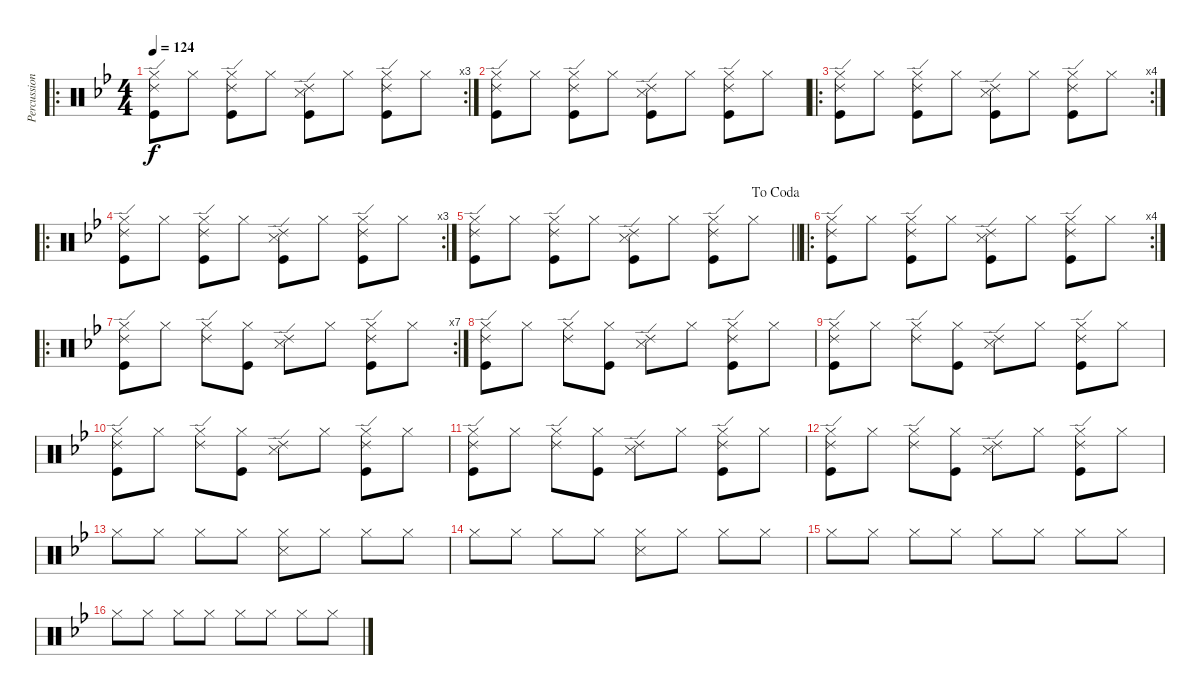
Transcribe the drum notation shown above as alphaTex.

\track ("Percussion" "Percussion") {instrument percussion}
\staff {score}
\articulation defaults
\ro
\rc 3
\ts (4 4)
\tempo 124
\clef neutral
\ks gminor
("Ride (edge) 2" "Hi-Hat (closed)" "Kick (hit)").8{dy f} "Hi-Hat (closed)".8 ("Ride (edge) 2" "Hi-Hat (closed)" "Kick (hit)").8 "Hi-Hat (closed)".8 ("Ride (edge) 2" "Snare (side stick) 3" "Kick (hit)").8 "Hi-Hat (closed)".8 ("Ride (edge) 2" "Hi-Hat (closed)" "Kick (hit)").8 "Hi-Hat (closed)".8 |
("Ride (edge) 2" "Hi-Hat (closed)" "Kick (hit)").8 "Hi-Hat (closed)".8 ("Ride (edge) 2" "Hi-Hat (closed)" "Kick (hit)").8 "Hi-Hat (closed)".8 ("Ride (edge) 2" "Snare (side stick) 3" "Kick (hit)").8 "Hi-Hat (closed)".8 ("Ride (edge) 2" "Hi-Hat (closed)" "Kick (hit)").8 "Hi-Hat (closed)".8 |
\ro
\rc 4
("Ride (edge) 2" "Hi-Hat (closed)" "Kick (hit)").8 "Hi-Hat (closed)".8 ("Ride (edge) 2" "Hi-Hat (closed)" "Kick (hit)").8 "Hi-Hat (closed)".8 ("Ride (edge) 2" "Snare (side stick) 3" "Kick (hit)").8 "Hi-Hat (closed)".8 ("Ride (edge) 2" "Hi-Hat (closed)" "Kick (hit)").8 "Hi-Hat (closed)".8 |
\ro
\rc 3
("Ride (edge) 2" "Hi-Hat (closed)" "Kick (hit)").8 "Hi-Hat (closed)".8 ("Ride (edge) 2" "Hi-Hat (closed)" "Kick (hit)").8 "Hi-Hat (closed)".8 ("Ride (edge) 2" "Snare (side stick) 3" "Kick (hit)").8 "Hi-Hat (closed)".8 ("Ride (edge) 2" "Hi-Hat (closed)" "Kick (hit)").8 "Hi-Hat (closed)".8 |
\jump dacoda
\barLineRight lightlight
("Ride (edge) 2" "Hi-Hat (closed)" "Kick (hit)").8 "Hi-Hat (closed)".8 ("Ride (edge) 2" "Hi-Hat (closed)" "Kick (hit)").8 "Hi-Hat (closed)".8 ("Ride (edge) 2" "Snare (side stick) 3" "Kick (hit)").8 "Hi-Hat (closed)".8 ("Ride (edge) 2" "Hi-Hat (closed)" "Kick (hit)").8 "Hi-Hat (closed)".8 |
\ro
\rc 4
("Ride (edge) 2" "Hi-Hat (closed)" "Kick (hit)").8 "Hi-Hat (closed)".8 ("Ride (edge) 2" "Hi-Hat (closed)" "Kick (hit)").8 "Hi-Hat (closed)".8 ("Ride (edge) 2" "Snare (side stick) 3" "Kick (hit)").8 "Hi-Hat (closed)".8 ("Ride (edge) 2" "Hi-Hat (closed)" "Kick (hit)").8 "Hi-Hat (closed)".8 |
\ro
\rc 7
("Ride (edge) 2" "Hi-Hat (closed)" "Kick (hit)").8 "Hi-Hat (closed)".8 ("Ride (edge) 2" "Hi-Hat (closed)").8 ("Hi-Hat (closed)" "Kick (hit)").8 ("Ride (edge) 2" "Snare (side stick) 3").8 "Hi-Hat (closed)".8 ("Ride (edge) 2" "Hi-Hat (closed)" "Kick (hit)").8 "Hi-Hat (closed)".8 |
("Ride (edge) 2" "Hi-Hat (closed)" "Kick (hit)").8 "Hi-Hat (closed)".8 ("Ride (edge) 2" "Hi-Hat (closed)").8 ("Hi-Hat (closed)" "Kick (hit)").8 ("Ride (edge) 2" "Snare (side stick) 3").8 "Hi-Hat (closed)".8 ("Ride (edge) 2" "Hi-Hat (closed)" "Kick (hit)").8 "Hi-Hat (closed)".8 |
("Ride (edge) 2" "Hi-Hat (closed)" "Kick (hit)").8 "Hi-Hat (closed)".8 ("Ride (edge) 2" "Hi-Hat (closed)").8 ("Hi-Hat (closed)" "Kick (hit)").8 ("Ride (edge) 2" "Snare (side stick) 3").8 "Hi-Hat (closed)".8 ("Ride (edge) 2" "Hi-Hat (closed)" "Kick (hit)").8 "Hi-Hat (closed)".8 |
("Ride (edge) 2" "Hi-Hat (closed)" "Kick (hit)").8 "Hi-Hat (closed)".8 ("Ride (edge) 2" "Hi-Hat (closed)").8 ("Hi-Hat (closed)" "Kick (hit)").8 ("Ride (edge) 2" "Snare (side stick) 3").8 "Hi-Hat (closed)".8 ("Ride (edge) 2" "Hi-Hat (closed)" "Kick (hit)").8 "Hi-Hat (closed)".8 |
("Ride (edge) 2" "Hi-Hat (closed)" "Kick (hit)").8 "Hi-Hat (closed)".8 ("Ride (edge) 2" "Hi-Hat (closed)").8 ("Hi-Hat (closed)" "Kick (hit)").8 ("Ride (edge) 2" "Snare (side stick) 3").8 "Hi-Hat (closed)".8 ("Ride (edge) 2" "Hi-Hat (closed)" "Kick (hit)").8 "Hi-Hat (closed)".8 |
("Ride (edge) 2" "Hi-Hat (closed)" "Kick (hit)").8 "Hi-Hat (closed)".8 ("Ride (edge) 2" "Hi-Hat (closed)").8 ("Hi-Hat (closed)" "Kick (hit)").8 ("Ride (edge) 2" "Snare (side stick) 3").8 "Hi-Hat (closed)".8 ("Ride (edge) 2" "Hi-Hat (closed)" "Kick (hit)").8 "Hi-Hat (closed)".8 |
"Hi-Hat (closed)".8 "Hi-Hat (closed)".8 "Hi-Hat (closed)".8 "Hi-Hat (closed)".8 ("Hi-Hat (closed)" "Snare (side stick) 3").8 "Hi-Hat (closed)".8 "Hi-Hat (closed)".8 "Hi-Hat (closed)".8 |
"Hi-Hat (closed)".8 "Hi-Hat (closed)".8 "Hi-Hat (closed)".8 "Hi-Hat (closed)".8 ("Hi-Hat (closed)" "Snare (side stick) 3").8 "Hi-Hat (closed)".8 "Hi-Hat (closed)".8 "Hi-Hat (closed)".8 |
"Hi-Hat (closed)".8 "Hi-Hat (closed)".8 "Hi-Hat (closed)".8 "Hi-Hat (closed)".8 "Hi-Hat (closed)".8 "Hi-Hat (closed)".8 "Hi-Hat (closed)".8 "Hi-Hat (closed)".8 |
"Hi-Hat (closed)".8 "Hi-Hat (closed)".8 "Hi-Hat (closed)".8 "Hi-Hat (closed)".8 "Hi-Hat (closed)".8 "Hi-Hat (closed)".8 "Hi-Hat (closed)".8 "Hi-Hat (closed)".8
